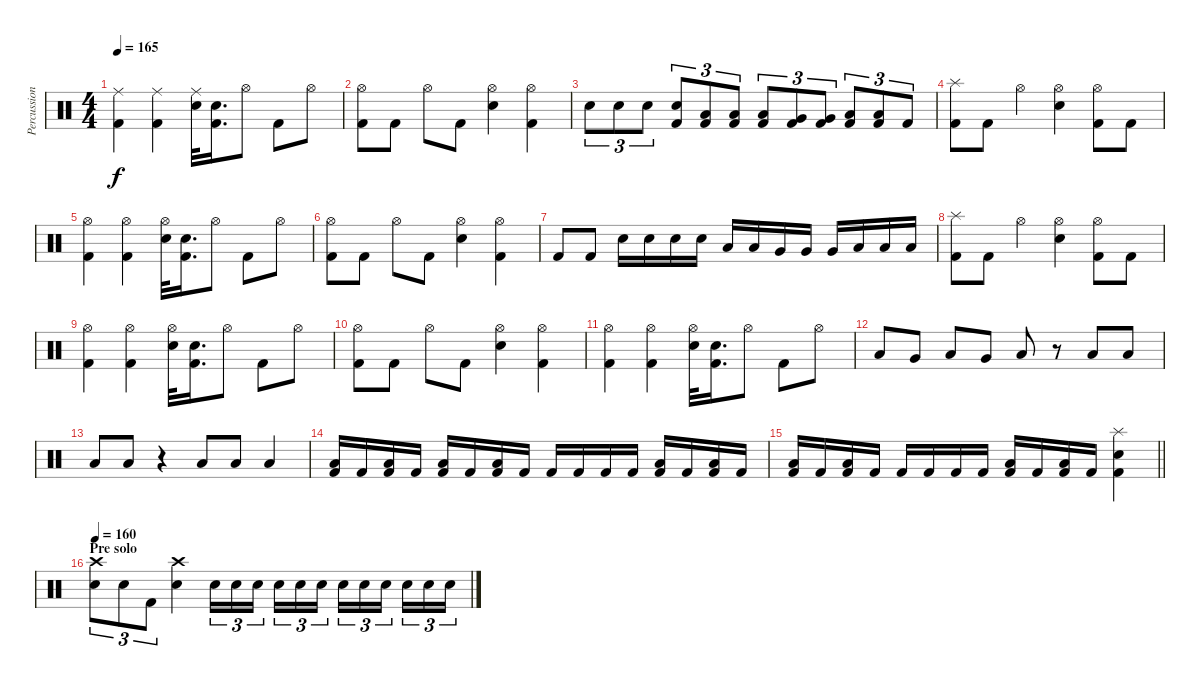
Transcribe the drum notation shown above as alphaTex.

\track ("Percussions" "Percussion") {instrument percussion}
\staff {score}
\articulation defaults
\ts (4 4)
\tempo 165
\clef neutral
\ks c
("Ride (middle)" "Kick (hit) 2").4{dy f} ("Ride (middle)" "Kick (hit) 2").4 ("Ride (middle)" "Electric Snare (hit)").32 ("Electric Snare (hit)" "Kick (hit) 2").16{d} "Hi-Hat (open)".8 "Kick (hit) 2".8 "Hi-Hat (open)".8 |
("Hi-Hat (open)" "Kick (hit) 2").8 "Kick (hit) 2".8 "Hi-Hat (open)".8 "Kick (hit) 2".8 ("Hi-Hat (open)" "Electric Snare (hit)").4 ("Hi-Hat (open)" "Kick (hit) 2").4 |
"Electric Snare (hit)".8{tu (3 2)} "Electric Snare (hit)".8{tu (3 2)} "Electric Snare (hit)".8{tu (3 2)} ("Electric Snare (hit)" "Kick (hit) 2").8{tu (3 2)} ("Low Tom (hit)" "Kick (hit) 2").8{tu (3 2)} ("Low Tom (hit)" "Kick (hit) 2").8{tu (3 2)} ("Low Tom (hit)" "Kick (hit) 2").8{tu (3 2)} ("Very Low Tom (hit)" "Kick (hit) 2").8{tu (3 2)} ("Very Low Tom (hit)" "Kick (hit) 2").8{tu (3 2)} ("Low Floor Tom (hit)" "Kick (hit) 2").8{tu (3 2)} ("Low Floor Tom (hit)" "Kick (hit) 2").8{tu (3 2)} "Kick (hit) 2".8{tu (3 2)} |
("Splash (hit)" "Kick (hit) 2").8 "Kick (hit) 2".8 "Hi-Hat (open)".4 ("Hi-Hat (open)" "Electric Snare (hit)").4 ("Hi-Hat (open)" "Kick (hit) 2").8 "Kick (hit) 2".8 |
("Hi-Hat (open)" "Kick (hit) 2").4 ("Hi-Hat (open)" "Kick (hit) 2").4 ("Hi-Hat (open)" "Electric Snare (hit)").32 ("Electric Snare (hit)" "Kick (hit) 2").16{d} "Hi-Hat (open)".8 "Kick (hit) 2".8 "Hi-Hat (open)".8 |
("Hi-Hat (open)" "Kick (hit) 2").8 "Kick (hit) 2".8 "Hi-Hat (open)".8 "Kick (hit) 2".8 ("Hi-Hat (open)" "Electric Snare (hit)").4 ("Hi-Hat (open)" "Kick (hit) 2").4 |
"Kick (hit) 2".8 "Kick (hit) 2".8 "Electric Snare (hit)".16 "Electric Snare (hit)".16 "Electric Snare (hit)".16 "Electric Snare (hit)".16 "Low Tom (hit)".16 "Low Tom (hit)".16 "Very Low Tom (hit)".16 "Very Low Tom (hit)".16 "Very Low Tom (hit)".16 "Low Floor Tom (hit)".16 "Low Floor Tom (hit)".16 "Low Floor Tom (hit)".16 |
("Splash (hit)" "Kick (hit) 2").8 "Kick (hit) 2".8 "Hi-Hat (open)".4 ("Hi-Hat (open)" "Electric Snare (hit)").4 ("Hi-Hat (open)" "Kick (hit) 2").8 "Kick (hit) 2".8 |
("Hi-Hat (open)" "Kick (hit) 2").4 ("Hi-Hat (open)" "Kick (hit) 2").4 ("Hi-Hat (open)" "Electric Snare (hit)").32 ("Electric Snare (hit)" "Kick (hit) 2").16{d} "Hi-Hat (open)".8 "Kick (hit) 2".8 "Hi-Hat (open)".8 |
("Hi-Hat (open)" "Kick (hit) 2").8 "Kick (hit) 2".8 "Hi-Hat (open)".8 "Kick (hit) 2".8 ("Hi-Hat (open)" "Electric Snare (hit)").4 ("Hi-Hat (open)" "Kick (hit) 2").4 |
("Hi-Hat (open)" "Kick (hit) 2").4 ("Hi-Hat (open)" "Kick (hit) 2").4 ("Hi-Hat (open)" "Electric Snare (hit)").32 ("Electric Snare (hit)" "Kick (hit) 2").16{d} "Hi-Hat (open)".8 "Kick (hit) 2".8 "Hi-Hat (open)".8 |
"Low Floor Tom (hit)".8 "Very Low Tom (hit)".8 "Low Floor Tom (hit)".8 "Very Low Tom (hit)".8 "Low Floor Tom (hit)".8 r.8 "Low Floor Tom (hit)".8 "Low Floor Tom (hit)".8 |
"Low Floor Tom (hit)".8 "Low Floor Tom (hit)".8 r.4 "Low Floor Tom (hit)".8 "Low Floor Tom (hit)".8 "Low Floor Tom (hit)".4 |
("Low Floor Tom (hit)" "Kick (hit) 2").16 "Kick (hit) 2".16 ("Low Floor Tom (hit)" "Kick (hit) 2").16 "Kick (hit) 2".16 ("Low Floor Tom (hit)" "Kick (hit) 2").16 "Kick (hit) 2".16 ("Low Floor Tom (hit)" "Kick (hit) 2").16 "Kick (hit) 2".16 "Kick (hit) 2".16 "Kick (hit) 2".16 "Kick (hit) 2".16 "Kick (hit) 2".16 ("Low Floor Tom (hit)" "Kick (hit) 2").16 "Kick (hit) 2".16 ("Low Floor Tom (hit)" "Kick (hit) 2").16 "Kick (hit) 2".16 |
\barLineRight lightlight
("Low Floor Tom (hit)" "Kick (hit) 2").16 "Kick (hit) 2".16 ("Low Floor Tom (hit)" "Kick (hit) 2").16 "Kick (hit) 2".16 "Kick (hit) 2".16 "Kick (hit) 2".16 "Kick (hit) 2".16 "Kick (hit) 2".16 ("Low Floor Tom (hit)" "Kick (hit) 2").16 "Kick (hit) 2".16 ("Low Floor Tom (hit)" "Kick (hit) 2").16 "Kick (hit) 2".16 ("Splash (hit)" "Electric Snare (hit)" "Kick (hit) 2").4 |
\section ("" "Pre solo")
\tempo 160
("Crash high (hit)" "Electric Snare (hit)").8{tu (3 2)} "Electric Snare (hit)".8{tu (3 2)} "Kick (hit) 2".8{tu (3 2)} ("Crash high (hit)" "Electric Snare (hit)").4 "Electric Snare (hit)".16{tu (3 2)} "Electric Snare (hit)".16{tu (3 2)} "Electric Snare (hit)".16{tu (3 2)} "Electric Snare (hit)".16{tu (3 2)} "Electric Snare (hit)".16{tu (3 2)} "Electric Snare (hit)".16{tu (3 2)} "Electric Snare (hit)".16{tu (3 2)} "Electric Snare (hit)".16{tu (3 2)} "Electric Snare (hit)".16{tu (3 2)} "Electric Snare (hit)".16{tu (3 2)} "Electric Snare (hit)".16{tu (3 2)} "Electric Snare (hit)".16{tu (3 2)}
